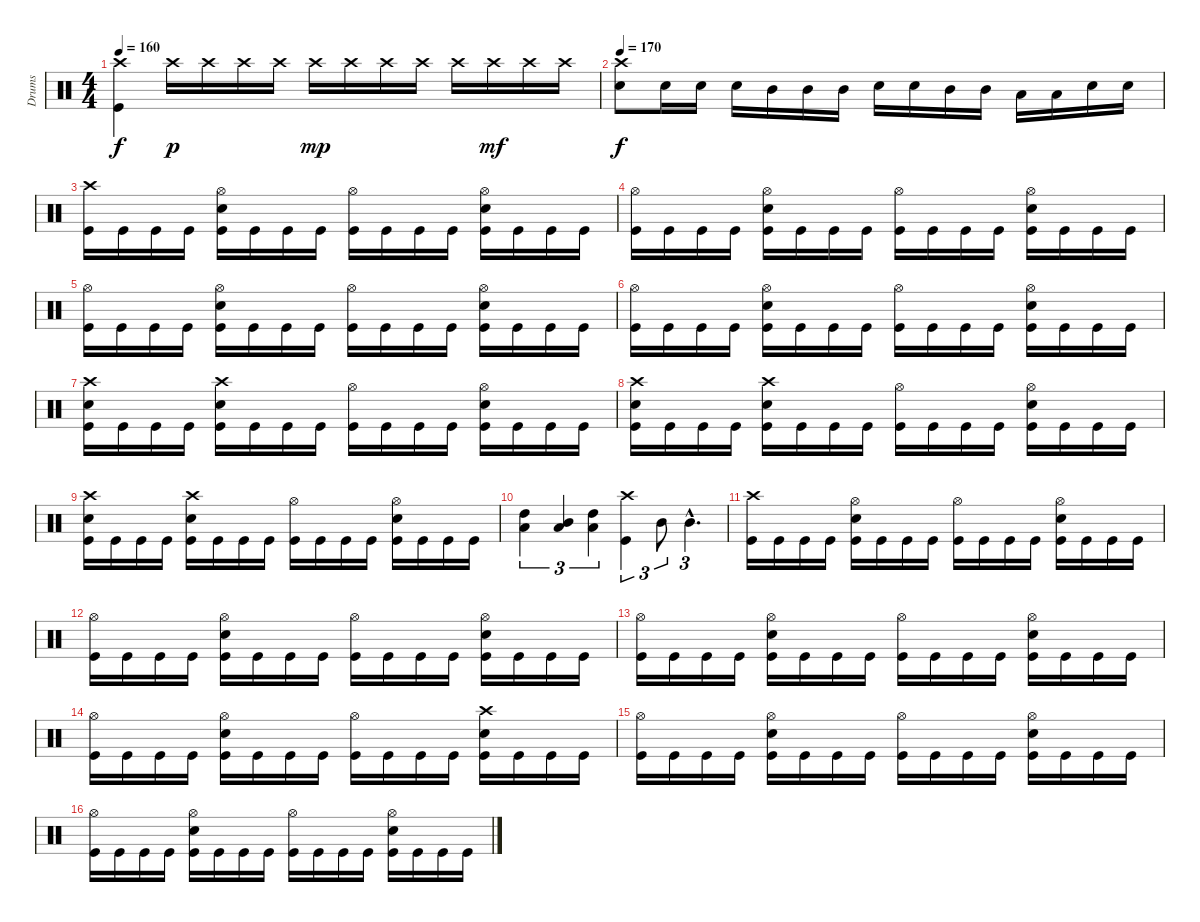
\track ("Drums" "Drums") {instrument percussion}
\staff {score}
\articulation defaults
\ts (4 4)
\tempo 160
\clef neutral
\ks c
("Crash high (hit)" "Kick (hit)").4{dy f} "Crash high (hit)".16{dy p} "Crash high (hit)".16 "Crash high (hit)".16 "Crash high (hit)".16 "Crash high (hit)".16{dy mp} "Crash high (hit)".16 "Crash high (hit)".16 "Crash high (hit)".16 "Crash high (hit)".16 "Crash high (hit)".16{dy mf} "Crash high (hit)".16 "Crash high (hit)".16 |
\tempo 170
("Crash high (hit)" "Electric Snare (hit)").8{dy f} "Electric Snare (hit)".16 "Electric Snare (hit)".16 "Electric Snare (hit)".16 "Mid Tom (hit)".16 "Mid Tom (hit)".16 "Mid Tom (hit)".16 "Electric Snare (hit)".16 "Electric Snare (hit)".16 "Mid Tom (hit)".16 "Mid Tom (hit)".16 "Low Tom (hit)".16 "Low Tom (hit)".16 "Electric Snare (hit)".16 "Electric Snare (hit)".16 |
("Crash high (hit)" "Kick (hit)").16 "Kick (hit)".16 "Kick (hit)".16 "Kick (hit)".16 ("Hi-Hat (open)" "Electric Snare (hit)" "Kick (hit)").16 "Kick (hit)".16 "Kick (hit)".16 "Kick (hit)".16 ("Hi-Hat (open)" "Kick (hit)").16 "Kick (hit)".16 "Kick (hit)".16 "Kick (hit)".16 ("Hi-Hat (open)" "Electric Snare (hit)" "Kick (hit)").16 "Kick (hit)".16 "Kick (hit)".16 "Kick (hit)".16 |
("Hi-Hat (open)" "Kick (hit)").16 "Kick (hit)".16 "Kick (hit)".16 "Kick (hit)".16 ("Hi-Hat (open)" "Electric Snare (hit)" "Kick (hit)").16 "Kick (hit)".16 "Kick (hit)".16 "Kick (hit)".16 ("Hi-Hat (open)" "Kick (hit)").16 "Kick (hit)".16 "Kick (hit)".16 "Kick (hit)".16 ("Hi-Hat (open)" "Electric Snare (hit)" "Kick (hit)").16 "Kick (hit)".16 "Kick (hit)".16 "Kick (hit)".16 |
("Hi-Hat (open)" "Kick (hit)").16 "Kick (hit)".16 "Kick (hit)".16 "Kick (hit)".16 ("Hi-Hat (open)" "Electric Snare (hit)" "Kick (hit)").16 "Kick (hit)".16 "Kick (hit)".16 "Kick (hit)".16 ("Hi-Hat (open)" "Kick (hit)").16 "Kick (hit)".16 "Kick (hit)".16 "Kick (hit)".16 ("Hi-Hat (open)" "Electric Snare (hit)" "Kick (hit)").16 "Kick (hit)".16 "Kick (hit)".16 "Kick (hit)".16 |
("Hi-Hat (open)" "Kick (hit)").16 "Kick (hit)".16 "Kick (hit)".16 "Kick (hit)".16 ("Hi-Hat (open)" "Electric Snare (hit)" "Kick (hit)").16 "Kick (hit)".16 "Kick (hit)".16 "Kick (hit)".16 ("Hi-Hat (open)" "Kick (hit)").16 "Kick (hit)".16 "Kick (hit)".16 "Kick (hit)".16 ("Hi-Hat (open)" "Electric Snare (hit)" "Kick (hit)").16 "Kick (hit)".16 "Kick (hit)".16 "Kick (hit)".16 |
("Crash high (hit)" "Electric Snare (hit)" "Kick (hit)").16 "Kick (hit)".16 "Kick (hit)".16 "Kick (hit)".16 ("Crash high (hit)" "Electric Snare (hit)" "Kick (hit)").16 "Kick (hit)".16 "Kick (hit)".16 "Kick (hit)".16 ("Hi-Hat (open)" "Kick (hit)").16 "Kick (hit)".16 "Kick (hit)".16 "Kick (hit)".16 ("Hi-Hat (open)" "Electric Snare (hit)" "Kick (hit)").16 "Kick (hit)".16 "Kick (hit)".16 "Kick (hit)".16 |
("Crash high (hit)" "Electric Snare (hit)" "Kick (hit)").16 "Kick (hit)".16 "Kick (hit)".16 "Kick (hit)".16 ("Crash high (hit)" "Electric Snare (hit)" "Kick (hit)").16 "Kick (hit)".16 "Kick (hit)".16 "Kick (hit)".16 ("Hi-Hat (open)" "Kick (hit)").16 "Kick (hit)".16 "Kick (hit)".16 "Kick (hit)".16 ("Hi-Hat (open)" "Electric Snare (hit)" "Kick (hit)").16 "Kick (hit)".16 "Kick (hit)".16 "Kick (hit)".16 |
("Crash high (hit)" "Electric Snare (hit)" "Kick (hit)").16 "Kick (hit)".16 "Kick (hit)".16 "Kick (hit)".16 ("Crash high (hit)" "Electric Snare (hit)" "Kick (hit)").16 "Kick (hit)".16 "Kick (hit)".16 "Kick (hit)".16 ("Hi-Hat (open)" "Kick (hit)").16 "Kick (hit)".16 "Kick (hit)".16 "Kick (hit)".16 ("Hi-Hat (open)" "Electric Snare (hit)" "Kick (hit)").16 "Kick (hit)".16 "Kick (hit)".16 "Kick (hit)".16 |
("High Tom (hit)" "Low Floor Tom (hit)").4{tu (3 2)} ("Mid Tom (hit)" "Low Floor Tom (hit)").4{tu (3 2)} ("High Tom (hit)" "Low Floor Tom (hit)").4{tu (3 2)} ("Crash high (hit)" "Kick (hit)").4{tu (3 2)} "Mid Tom (hit)".8{tu (3 2)} "Mid Tom (hit)"{hac}.4{d tu (3 2)} |
("Crash high (hit)" "Kick (hit)").16 "Kick (hit)".16 "Kick (hit)".16 "Kick (hit)".16 ("Hi-Hat (open)" "Electric Snare (hit)" "Kick (hit)").16 "Kick (hit)".16 "Kick (hit)".16 "Kick (hit)".16 ("Hi-Hat (open)" "Kick (hit)").16 "Kick (hit)".16 "Kick (hit)".16 "Kick (hit)".16 ("Hi-Hat (open)" "Electric Snare (hit)" "Kick (hit)").16 "Kick (hit)".16 "Kick (hit)".16 "Kick (hit)".16 |
("Hi-Hat (open)" "Kick (hit)").16 "Kick (hit)".16 "Kick (hit)".16 "Kick (hit)".16 ("Hi-Hat (open)" "Electric Snare (hit)" "Kick (hit)").16 "Kick (hit)".16 "Kick (hit)".16 "Kick (hit)".16 ("Hi-Hat (open)" "Kick (hit)").16 "Kick (hit)".16 "Kick (hit)".16 "Kick (hit)".16 ("Hi-Hat (open)" "Electric Snare (hit)" "Kick (hit)").16 "Kick (hit)".16 "Kick (hit)".16 "Kick (hit)".16 |
("Hi-Hat (open)" "Kick (hit)").16 "Kick (hit)".16 "Kick (hit)".16 "Kick (hit)".16 ("Hi-Hat (open)" "Electric Snare (hit)" "Kick (hit)").16 "Kick (hit)".16 "Kick (hit)".16 "Kick (hit)".16 ("Hi-Hat (open)" "Kick (hit)").16 "Kick (hit)".16 "Kick (hit)".16 "Kick (hit)".16 ("Hi-Hat (open)" "Electric Snare (hit)" "Kick (hit)").16 "Kick (hit)".16 "Kick (hit)".16 "Kick (hit)".16 |
("Hi-Hat (open)" "Kick (hit)").16 "Kick (hit)".16 "Kick (hit)".16 "Kick (hit)".16 ("Hi-Hat (open)" "Electric Snare (hit)" "Kick (hit)").16 "Kick (hit)".16 "Kick (hit)".16 "Kick (hit)".16 ("Hi-Hat (open)" "Kick (hit)").16 "Kick (hit)".16 "Kick (hit)".16 "Kick (hit)".16 ("Crash high (hit)" "Electric Snare (hit)" "Kick (hit)").16 "Kick (hit)".16 "Kick (hit)".16 "Kick (hit)".16 |
("Hi-Hat (open)" "Kick (hit)").16 "Kick (hit)".16 "Kick (hit)".16 "Kick (hit)".16 ("Hi-Hat (open)" "Electric Snare (hit)" "Kick (hit)").16 "Kick (hit)".16 "Kick (hit)".16 "Kick (hit)".16 ("Hi-Hat (open)" "Kick (hit)").16 "Kick (hit)".16 "Kick (hit)".16 "Kick (hit)".16 ("Hi-Hat (open)" "Electric Snare (hit)" "Kick (hit)").16 "Kick (hit)".16 "Kick (hit)".16 "Kick (hit)".16 |
("Hi-Hat (open)" "Kick (hit)").16 "Kick (hit)".16 "Kick (hit)".16 "Kick (hit)".16 ("Hi-Hat (open)" "Electric Snare (hit)" "Kick (hit)").16 "Kick (hit)".16 "Kick (hit)".16 "Kick (hit)".16 ("Hi-Hat (open)" "Kick (hit)").16 "Kick (hit)".16 "Kick (hit)".16 "Kick (hit)".16 ("Hi-Hat (open)" "Electric Snare (hit)" "Kick (hit)").16 "Kick (hit)".16 "Kick (hit)".16 "Kick (hit)".16
